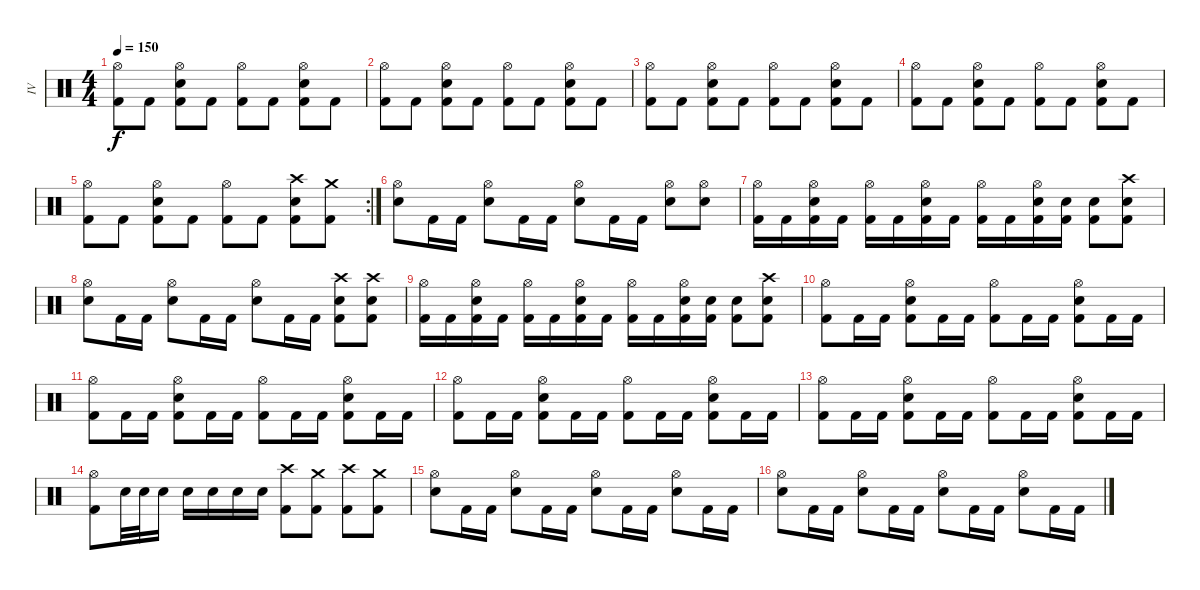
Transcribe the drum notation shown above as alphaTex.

\track ("IV" "IV") {instrument percussion}
\staff {score}
\articulation defaults
\ts (4 4)
\tempo 150
\clef neutral
\ks c
("Hi-Hat (open)" "Kick (hit) 2").8{dy f} "Kick (hit) 2".8 ("Hi-Hat (open)" "Snare (hit) 2" "Kick (hit) 2").8 "Kick (hit) 2".8 ("Hi-Hat (open)" "Kick (hit) 2").8 "Kick (hit) 2".8 ("Hi-Hat (open)" "Snare (hit) 2" "Kick (hit) 2").8 "Kick (hit) 2".8 |
("Hi-Hat (open)" "Kick (hit) 2").8 "Kick (hit) 2".8 ("Hi-Hat (open)" "Snare (hit) 2" "Kick (hit) 2").8 "Kick (hit) 2".8 ("Hi-Hat (open)" "Kick (hit) 2").8 "Kick (hit) 2".8 ("Hi-Hat (open)" "Snare (hit) 2" "Kick (hit) 2").8 "Kick (hit) 2".8 |
("Hi-Hat (open)" "Kick (hit) 2").8 "Kick (hit) 2".8 ("Hi-Hat (open)" "Snare (hit) 2" "Kick (hit) 2").8 "Kick (hit) 2".8 ("Hi-Hat (open)" "Kick (hit) 2").8 "Kick (hit) 2".8 ("Hi-Hat (open)" "Snare (hit) 2" "Kick (hit) 2").8 "Kick (hit) 2".8 |
("Hi-Hat (open)" "Kick (hit) 2").8 "Kick (hit) 2".8 ("Hi-Hat (open)" "Snare (hit) 2" "Kick (hit) 2").8 "Kick (hit) 2".8 ("Hi-Hat (open)" "Kick (hit) 2").8 "Kick (hit) 2".8 ("Hi-Hat (open)" "Snare (hit) 2" "Kick (hit) 2").8 "Kick (hit) 2".8 |
\rc 2
("Hi-Hat (open)" "Kick (hit) 2").8 "Kick (hit) 2".8 ("Hi-Hat (open)" "Snare (hit) 2" "Kick (hit) 2").8 "Kick (hit) 2".8 ("Hi-Hat (open)" "Kick (hit) 2").8 "Kick (hit) 2".8 ("Crash high (hit)" "Snare (hit) 2" "Kick (hit) 2").8 ("Crash medium (hit)" "Kick (hit) 2").8 |
("Hi-Hat (open)" "Snare (hit) 2").8 "Kick (hit) 2".16 "Kick (hit) 2".16 ("Hi-Hat (open)" "Snare (hit) 2").8 "Kick (hit) 2".16 "Kick (hit) 2".16 ("Hi-Hat (open)" "Snare (hit) 2").8 "Kick (hit) 2".16 "Kick (hit) 2".16 ("Hi-Hat (open)" "Snare (hit) 2").8 ("Hi-Hat (open)" "Snare (hit) 2").8 |
("Hi-Hat (open)" "Kick (hit) 2").16 "Kick (hit) 2".16 ("Hi-Hat (open)" "Snare (hit) 2" "Kick (hit) 2").16 "Kick (hit) 2".16 ("Hi-Hat (open)" "Kick (hit) 2").16 "Kick (hit) 2".16 ("Hi-Hat (open)" "Snare (hit) 2" "Kick (hit) 2").16 "Kick (hit) 2".16 ("Hi-Hat (open)" "Kick (hit) 2").16 "Kick (hit) 2".16 ("Hi-Hat (open)" "Snare (hit) 2" "Kick (hit) 2").16 ("Snare (hit) 2" "Kick (hit) 2").16 ("Snare (hit) 2" "Kick (hit) 2").8 ("Crash high (hit)" "Snare (hit) 2" "Kick (hit) 2").8 |
("Hi-Hat (open)" "Snare (hit) 2").8 "Kick (hit) 2".16 "Kick (hit) 2".16 ("Hi-Hat (open)" "Snare (hit) 2").8 "Kick (hit) 2".16 "Kick (hit) 2".16 ("Hi-Hat (open)" "Snare (hit) 2").8 "Kick (hit) 2".16 "Kick (hit) 2".16 ("Crash high (hit)" "Snare (hit) 2" "Kick (hit) 2").8 ("Crash high (hit)" "Snare (hit) 2" "Kick (hit) 2").8 |
("Hi-Hat (open)" "Kick (hit) 2").16 "Kick (hit) 2".16 ("Hi-Hat (open)" "Snare (hit) 2" "Kick (hit) 2").16 "Kick (hit) 2".16 ("Hi-Hat (open)" "Kick (hit) 2").16 "Kick (hit) 2".16 ("Hi-Hat (open)" "Snare (hit) 2" "Kick (hit) 2").16 "Kick (hit) 2".16 ("Hi-Hat (open)" "Kick (hit) 2").16 "Kick (hit) 2".16 ("Hi-Hat (open)" "Snare (hit) 2" "Kick (hit) 2").16 ("Snare (hit) 2" "Kick (hit) 2").16 ("Snare (hit) 2" "Kick (hit) 2").8 ("Crash high (hit)" "Snare (hit) 2" "Kick (hit) 2").8 |
("Hi-Hat (open)" "Kick (hit) 2").8 "Kick (hit) 2".16 "Kick (hit) 2".16 ("Hi-Hat (open)" "Snare (hit) 2" "Kick (hit) 2").8 "Kick (hit) 2".16 "Kick (hit) 2".16 ("Hi-Hat (open)" "Kick (hit) 2").8 "Kick (hit) 2".16 "Kick (hit) 2".16 ("Hi-Hat (open)" "Snare (hit) 2" "Kick (hit) 2").8 "Kick (hit) 2".16 "Kick (hit) 2".16 |
("Hi-Hat (open)" "Kick (hit) 2").8 "Kick (hit) 2".16 "Kick (hit) 2".16 ("Hi-Hat (open)" "Snare (hit) 2" "Kick (hit) 2").8 "Kick (hit) 2".16 "Kick (hit) 2".16 ("Hi-Hat (open)" "Kick (hit) 2").8 "Kick (hit) 2".16 "Kick (hit) 2".16 ("Hi-Hat (open)" "Snare (hit) 2" "Kick (hit) 2").8 "Kick (hit) 2".16 "Kick (hit) 2".16 |
("Hi-Hat (open)" "Kick (hit) 2").8 "Kick (hit) 2".16 "Kick (hit) 2".16 ("Hi-Hat (open)" "Snare (hit) 2" "Kick (hit) 2").8 "Kick (hit) 2".16 "Kick (hit) 2".16 ("Hi-Hat (open)" "Kick (hit) 2").8 "Kick (hit) 2".16 "Kick (hit) 2".16 ("Hi-Hat (open)" "Snare (hit) 2" "Kick (hit) 2").8 "Kick (hit) 2".16 "Kick (hit) 2".16 |
("Hi-Hat (open)" "Kick (hit) 2").8 "Kick (hit) 2".16 "Kick (hit) 2".16 ("Hi-Hat (open)" "Snare (hit) 2" "Kick (hit) 2").8 "Kick (hit) 2".16 "Kick (hit) 2".16 ("Hi-Hat (open)" "Kick (hit) 2").8 "Kick (hit) 2".16 "Kick (hit) 2".16 ("Hi-Hat (open)" "Snare (hit) 2" "Kick (hit) 2").8 "Kick (hit) 2".16 "Kick (hit) 2".16 |
("Hi-Hat (open)" "Kick (hit) 2").8 "Snare (hit) 2".32 "Snare (hit) 2".32 "Snare (hit) 2".16 "Snare (hit) 2".16 "Snare (hit) 2".16 "Snare (hit) 2".16 "Snare (hit) 2".16 ("Crash high (hit)" "Kick (hit) 2").8 ("Crash medium (hit)" "Kick (hit) 2").8 ("Crash high (hit)" "Kick (hit) 2").8 ("Crash medium (hit)" "Kick (hit) 2").8 |
("Hi-Hat (open)" "Snare (hit) 2").8 "Kick (hit) 2".16 "Kick (hit) 2".16 ("Hi-Hat (open)" "Snare (hit) 2").8 "Kick (hit) 2".16 "Kick (hit) 2".16 ("Hi-Hat (open)" "Snare (hit) 2").8 "Kick (hit) 2".16 "Kick (hit) 2".16 ("Hi-Hat (open)" "Snare (hit) 2").8 "Kick (hit) 2".16 "Kick (hit) 2".16 |
("Hi-Hat (open)" "Snare (hit) 2").8 "Kick (hit) 2".16 "Kick (hit) 2".16 ("Hi-Hat (open)" "Snare (hit) 2").8 "Kick (hit) 2".16 "Kick (hit) 2".16 ("Hi-Hat (open)" "Snare (hit) 2").8 "Kick (hit) 2".16 "Kick (hit) 2".16 ("Hi-Hat (open)" "Snare (hit) 2").8 "Kick (hit) 2".16 "Kick (hit) 2".16
